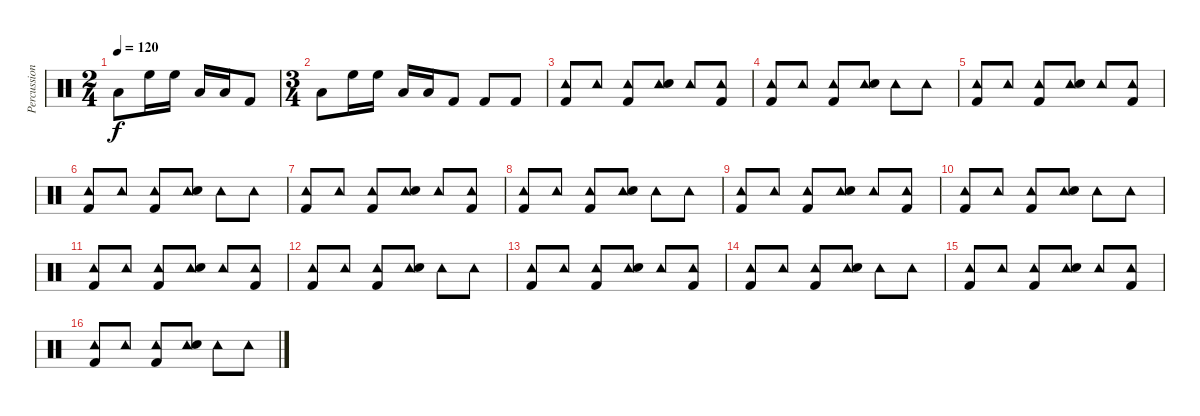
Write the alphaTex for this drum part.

\track ("Percussions" "Percussion") {instrument percussion}
\staff {score}
\articulation defaults
\ts (2 4)
\tempo 120
\clef neutral
\ks c "Low Tom (hit)".8{dy f} "High Floor Tom (hit)".16 "High Floor Tom (hit)".16 "Low Tom (hit)".16 "Low Tom (hit)".16 "Kick (hit) 2".8
|
\ts (3 4)
"Low Tom (hit)".8 "High Floor Tom (hit)".16 "High Floor Tom (hit)".16 "Low Tom (hit)".16 "Low Tom (hit)".16 "Kick (hit) 2".8 "Kick (hit) 2".8 "Kick (hit) 2".8 |
("Tambourine (hit)" "Kick (hit) 2").8 "Tambourine (hit)".8 ("Tambourine (hit)" "Kick (hit) 2").8 ("Tambourine (hit)" "Electric Snare (hit)").8 "Tambourine (hit)".8 ("Tambourine (hit)" "Kick (hit) 2").8 |
("Tambourine (hit)" "Kick (hit) 2").8 "Tambourine (hit)".8 ("Tambourine (hit)" "Kick (hit) 2").8 ("Tambourine (hit)" "Electric Snare (hit)").8 "Tambourine (hit)".8 "Tambourine (hit)".8 |
("Tambourine (hit)" "Kick (hit) 2").8 "Tambourine (hit)".8 ("Tambourine (hit)" "Kick (hit) 2").8 ("Tambourine (hit)" "Electric Snare (hit)").8 "Tambourine (hit)".8 ("Tambourine (hit)" "Kick (hit) 2").8 |
("Tambourine (hit)" "Kick (hit) 2").8 "Tambourine (hit)".8 ("Tambourine (hit)" "Kick (hit) 2").8 ("Tambourine (hit)" "Electric Snare (hit)").8 "Tambourine (hit)".8 "Tambourine (hit)".8 |
("Tambourine (hit)" "Kick (hit) 2").8 "Tambourine (hit)".8 ("Tambourine (hit)" "Kick (hit) 2").8 ("Tambourine (hit)" "Electric Snare (hit)").8 "Tambourine (hit)".8 ("Tambourine (hit)" "Kick (hit) 2").8 |
("Tambourine (hit)" "Kick (hit) 2").8 "Tambourine (hit)".8 ("Tambourine (hit)" "Kick (hit) 2").8 ("Tambourine (hit)" "Electric Snare (hit)").8 "Tambourine (hit)".8 "Tambourine (hit)".8 |
("Tambourine (hit)" "Kick (hit) 2").8 "Tambourine (hit)".8 ("Tambourine (hit)" "Kick (hit) 2").8 ("Tambourine (hit)" "Electric Snare (hit)").8 "Tambourine (hit)".8 ("Tambourine (hit)" "Kick (hit) 2").8 |
("Tambourine (hit)" "Kick (hit) 2").8 "Tambourine (hit)".8 ("Tambourine (hit)" "Kick (hit) 2").8 ("Tambourine (hit)" "Electric Snare (hit)").8 "Tambourine (hit)".8 "Tambourine (hit)".8 |
("Tambourine (hit)" "Kick (hit) 2").8 "Tambourine (hit)".8 ("Tambourine (hit)" "Kick (hit) 2").8 ("Tambourine (hit)" "Electric Snare (hit)").8 "Tambourine (hit)".8 ("Tambourine (hit)" "Kick (hit) 2").8 |
("Tambourine (hit)" "Kick (hit) 2").8 "Tambourine (hit)".8 ("Tambourine (hit)" "Kick (hit) 2").8 ("Tambourine (hit)" "Electric Snare (hit)").8 "Tambourine (hit)".8 "Tambourine (hit)".8 |
("Tambourine (hit)" "Kick (hit) 2").8 "Tambourine (hit)".8 ("Tambourine (hit)" "Kick (hit) 2").8 ("Tambourine (hit)" "Electric Snare (hit)").8 "Tambourine (hit)".8 ("Tambourine (hit)" "Kick (hit) 2").8 |
("Tambourine (hit)" "Kick (hit) 2").8 "Tambourine (hit)".8 ("Tambourine (hit)" "Kick (hit) 2").8 ("Tambourine (hit)" "Electric Snare (hit)").8 "Tambourine (hit)".8 "Tambourine (hit)".8 |
("Tambourine (hit)" "Kick (hit) 2").8 "Tambourine (hit)".8 ("Tambourine (hit)" "Kick (hit) 2").8 ("Tambourine (hit)" "Electric Snare (hit)").8 "Tambourine (hit)".8 ("Tambourine (hit)" "Kick (hit) 2").8 |
("Tambourine (hit)" "Kick (hit) 2").8 "Tambourine (hit)".8 ("Tambourine (hit)" "Kick (hit) 2").8 ("Tambourine (hit)" "Electric Snare (hit)").8 "Tambourine (hit)".8 "Tambourine (hit)".8
